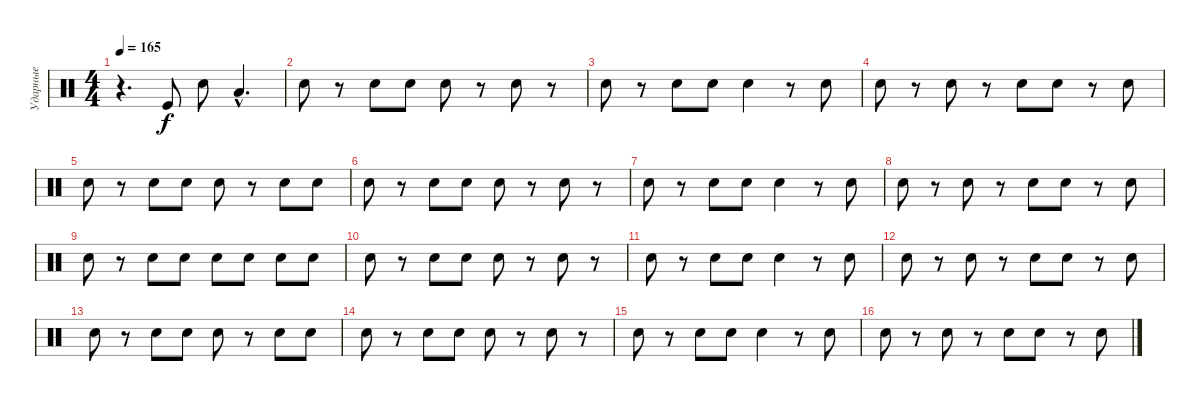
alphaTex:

\track ("Ударные" "Ударные") {instrument percussion}
\staff {score}
\articulation defaults
\ts (4 4)
\tempo 165
\clef neutral
\ks c
r.4{d dy f} "Kick (hit)".8 "Electric Snare (hit)".8 "Low Tom (hit)"{hac}.4{d} |
"Electric Snare (hit)".8 r.8 "Electric Snare (hit)".8 "Electric Snare (hit)".8 "Electric Snare (hit)".8 r.8 "Electric Snare (hit)".8 r.8 |
"Electric Snare (hit)".8 r.8 "Electric Snare (hit)".8 "Electric Snare (hit)".8 "Electric Snare (hit)".4 r.8 "Electric Snare (hit)".8 |
"Electric Snare (hit)".8 r.8 "Electric Snare (hit)".8 r.8 "Electric Snare (hit)".8 "Electric Snare (hit)".8 r.8 "Electric Snare (hit)".8 |
"Electric Snare (hit)".8 r.8 "Electric Snare (hit)".8 "Electric Snare (hit)".8 "Electric Snare (hit)".8 r.8 "Electric Snare (hit)".8 "Electric Snare (hit)".8 |
"Electric Snare (hit)".8 r.8 "Electric Snare (hit)".8 "Electric Snare (hit)".8 "Electric Snare (hit)".8 r.8 "Electric Snare (hit)".8 r.8 |
"Electric Snare (hit)".8 r.8 "Electric Snare (hit)".8 "Electric Snare (hit)".8 "Electric Snare (hit)".4 r.8 "Electric Snare (hit)".8 |
"Electric Snare (hit)".8 r.8 "Electric Snare (hit)".8 r.8 "Electric Snare (hit)".8 "Electric Snare (hit)".8 r.8 "Electric Snare (hit)".8 |
"Electric Snare (hit)".8 r.8 "Electric Snare (hit)".8 "Electric Snare (hit)".8 "Electric Snare (hit)".8 "Electric Snare (hit)".8 "Electric Snare (hit)".8 "Electric Snare (hit)".8 |
"Electric Snare (hit)".8 r.8 "Electric Snare (hit)".8 "Electric Snare (hit)".8 "Electric Snare (hit)".8 r.8 "Electric Snare (hit)".8 r.8 |
"Electric Snare (hit)".8 r.8 "Electric Snare (hit)".8 "Electric Snare (hit)".8 "Electric Snare (hit)".4 r.8 "Electric Snare (hit)".8 |
"Electric Snare (hit)".8 r.8 "Electric Snare (hit)".8 r.8 "Electric Snare (hit)".8 "Electric Snare (hit)".8 r.8 "Electric Snare (hit)".8 |
"Electric Snare (hit)".8 r.8 "Electric Snare (hit)".8 "Electric Snare (hit)".8 "Electric Snare (hit)".8 r.8 "Electric Snare (hit)".8 "Electric Snare (hit)".8 |
"Electric Snare (hit)".8 r.8 "Electric Snare (hit)".8 "Electric Snare (hit)".8 "Electric Snare (hit)".8 r.8 "Electric Snare (hit)".8 r.8 |
"Electric Snare (hit)".8 r.8 "Electric Snare (hit)".8 "Electric Snare (hit)".8 "Electric Snare (hit)".4 r.8 "Electric Snare (hit)".8 |
"Electric Snare (hit)".8 r.8 "Electric Snare (hit)".8 r.8 "Electric Snare (hit)".8 "Electric Snare (hit)".8 r.8 "Electric Snare (hit)".8
